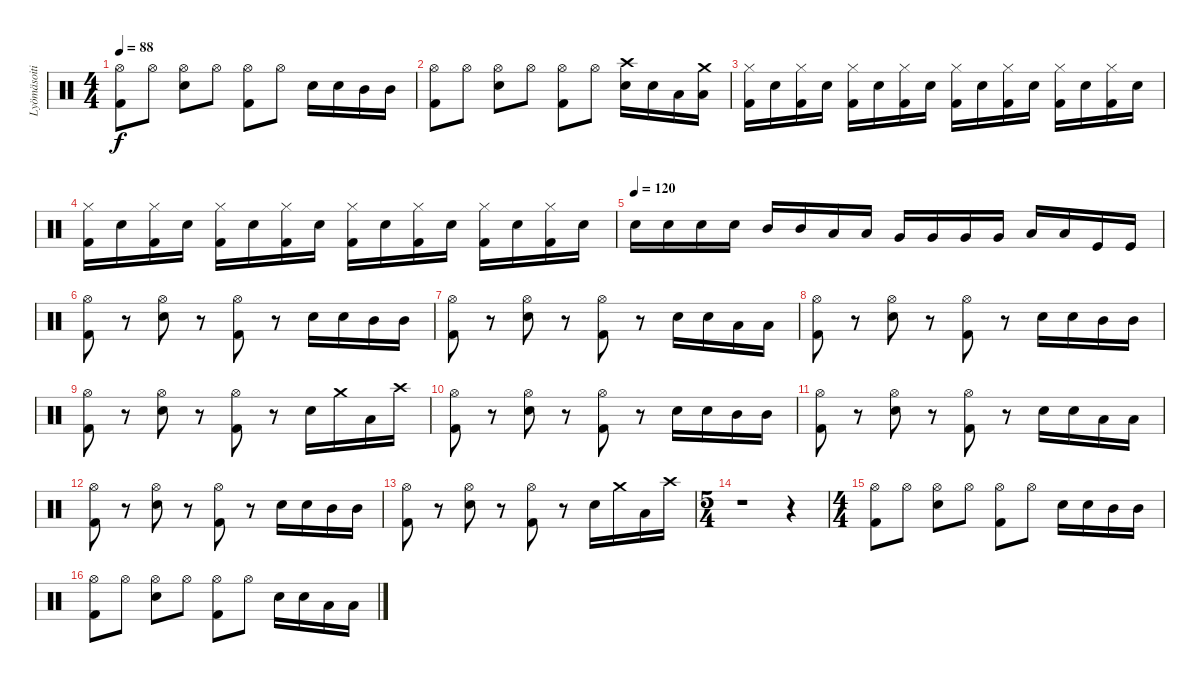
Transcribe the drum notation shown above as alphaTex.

\track ("Lyömäsoitin" "Lyömäsoiti") {instrument percussion}
\staff {score}
\articulation defaults
\ts (4 4)
\tempo 88
\clef neutral
\ks c
("Hi-Hat (open)" "Kick (hit) 2").8{dy f} "Hi-Hat (open)".8 ("Hi-Hat (open)" "Snare (hit) 2").8 "Hi-Hat (open)".8 ("Hi-Hat (open)" "Kick (hit) 2").8 "Hi-Hat (open)".8 "Snare (hit) 2".16 "Snare (hit) 2".16 "Mid Tom (hit)".16 "Mid Tom (hit)".16 |
("Hi-Hat (open)" "Kick (hit) 2").8 "Hi-Hat (open)".8 ("Hi-Hat (open)" "Snare (hit) 2").8 "Hi-Hat (open)".8 ("Hi-Hat (open)" "Kick (hit) 2").8 "Hi-Hat (open)".8 ("Snare (hit) 2" "Crash high (hit)").16 "Snare (hit) 2".16 "Low Tom (hit)".16 ("Low Tom (hit)" "Crash medium (hit)").16 |
("Hi-Hat (closed)" "Kick (hit) 2").16 "Snare (hit) 2".16 ("Hi-Hat (closed)" "Kick (hit) 2").16 "Snare (hit) 2".16 ("Hi-Hat (closed)" "Kick (hit) 2").16 "Snare (hit) 2".16 ("Hi-Hat (closed)" "Kick (hit) 2").16 "Snare (hit) 2".16 ("Hi-Hat (closed)" "Kick (hit) 2").16 "Snare (hit) 2".16 ("Hi-Hat (closed)" "Kick (hit) 2").16 "Snare (hit) 2".16 ("Hi-Hat (closed)" "Kick (hit) 2").16 "Snare (hit) 2".16 ("Hi-Hat (closed)" "Kick (hit) 2").16 "Snare (hit) 2".16 |
("Hi-Hat (closed)" "Kick (hit) 2").16 "Snare (hit) 2".16 ("Hi-Hat (closed)" "Kick (hit) 2").16 "Snare (hit) 2".16 ("Hi-Hat (closed)" "Kick (hit) 2").16 "Snare (hit) 2".16 ("Hi-Hat (closed)" "Kick (hit) 2").16 "Snare (hit) 2".16 ("Hi-Hat (closed)" "Kick (hit) 2").16 "Snare (hit) 2".16 ("Hi-Hat (closed)" "Kick (hit) 2").16 "Snare (hit) 2".16 ("Hi-Hat (closed)" "Kick (hit) 2").16 "Snare (hit) 2".16 ("Hi-Hat (closed)" "Kick (hit) 2").16 "Snare (hit) 2".16 |
\tempo (120)
"Snare (hit) 2".16 "Snare (hit) 2".16 "Snare (hit) 2".16 "Snare (hit) 2".16 "Mid Tom (hit)".16 "Mid Tom (hit)".16 "Low Tom (hit)".16 "Low Tom (hit)".16 "Very Low Tom (hit)".16 "Very Low Tom (hit)".16 "Very Low Tom (hit)".16 "Very Low Tom (hit)".16 "Low Floor Tom (hit)".16 "Low Floor Tom (hit)".16 "Kick (hit)".16 "Kick (hit)".16 |
("Hi-Hat (open)" "Kick (hit) 2").8 r.8 ("Hi-Hat (open)" "Snare (hit) 2").8 r.8 ("Hi-Hat (open)" "Kick (hit) 2").8 r.8 "Snare (hit) 2".16 "Snare (hit) 2".16 "Mid Tom (hit)".16 "Mid Tom (hit)".16 |
("Hi-Hat (open)" "Kick (hit) 2").8 r.8 ("Hi-Hat (open)" "Snare (hit) 2").8 r.8 ("Hi-Hat (open)" "Kick (hit) 2").8 r.8 "Snare (hit) 2".16 "Snare (hit) 2".16 "Low Tom (hit)".16 "Low Tom (hit)".16 |
("Hi-Hat (open)" "Kick (hit) 2").8 r.8 ("Hi-Hat (open)" "Snare (hit) 2").8 r.8 ("Hi-Hat (open)" "Kick (hit) 2").8 r.8 "Snare (hit) 2".16 "Snare (hit) 2".16 "Mid Tom (hit)".16 "Mid Tom (hit)".16 |
("Hi-Hat (open)" "Kick (hit) 2").8 r.8 ("Hi-Hat (open)" "Snare (hit) 2").8 r.8 ("Hi-Hat (open)" "Kick (hit) 2").8 r.8 "Snare (hit) 2".16 "Crash medium (hit)".16 "Low Tom (hit)".16 "Crash high (hit)".16 |
("Hi-Hat (open)" "Kick (hit) 2").8 r.8 ("Hi-Hat (open)" "Snare (hit) 2").8 r.8 ("Hi-Hat (open)" "Kick (hit) 2").8 r.8 "Snare (hit) 2".16 "Snare (hit) 2".16 "Mid Tom (hit)".16 "Mid Tom (hit)".16 |
("Hi-Hat (open)" "Kick (hit) 2").8 r.8 ("Hi-Hat (open)" "Snare (hit) 2").8 r.8 ("Hi-Hat (open)" "Kick (hit) 2").8 r.8 "Snare (hit) 2".16 "Snare (hit) 2".16 "Low Tom (hit)".16 "Low Tom (hit)".16 |
("Hi-Hat (open)" "Kick (hit) 2").8 r.8 ("Hi-Hat (open)" "Snare (hit) 2").8 r.8 ("Hi-Hat (open)" "Kick (hit) 2").8 r.8 "Snare (hit) 2".16 "Snare (hit) 2".16 "Mid Tom (hit)".16 "Mid Tom (hit)".16 |
("Hi-Hat (open)" "Kick (hit) 2").8 r.8 ("Hi-Hat (open)" "Snare (hit) 2").8 r.8 ("Hi-Hat (open)" "Kick (hit) 2").8 r.8 "Snare (hit) 2".16 "Crash medium (hit)".16 "Low Tom (hit)".16 "Crash high (hit)".16 |
\ts (5 4)
r.1 r.4 |
\ts (4 4)
("Hi-Hat (open)" "Kick (hit) 2").8 "Hi-Hat (open)".8 ("Hi-Hat (open)" "Snare (hit) 2").8 "Hi-Hat (open)".8 ("Hi-Hat (open)" "Kick (hit) 2").8 "Hi-Hat (open)".8 "Snare (hit) 2".16 "Snare (hit) 2".16 "Mid Tom (hit)".16 "Mid Tom (hit)".16 |
("Hi-Hat (open)" "Kick (hit) 2").8 "Hi-Hat (open)".8 ("Hi-Hat (open)" "Snare (hit) 2").8 "Hi-Hat (open)".8 ("Hi-Hat (open)" "Kick (hit) 2").8 "Hi-Hat (open)".8 "Snare (hit) 2".16 "Snare (hit) 2".16 "Low Tom (hit)".16 "Low Tom (hit)".16
